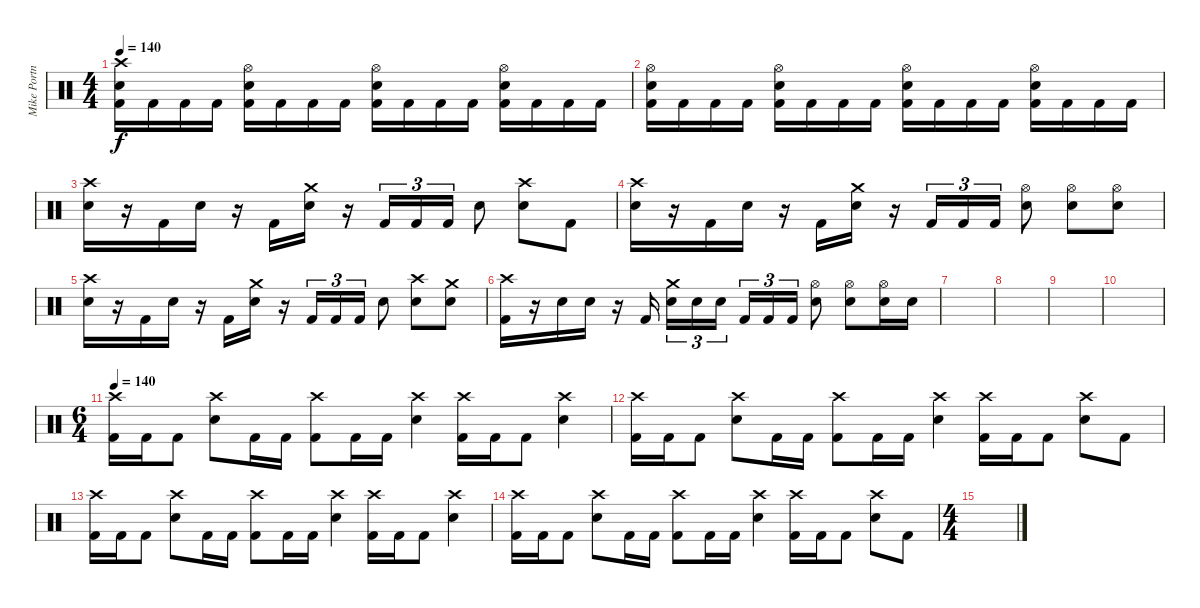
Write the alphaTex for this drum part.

\track ("Mike Portnoy" "Mike Portn") {instrument percussion}
\staff {score}
\articulation defaults
\ts (4 4)
\tempo 140
\clef neutral
\ks c
("Crash high (hit)" "Snare (hit) 2" "Kick (hit) 2").16{dy f} "Kick (hit) 2".16 "Kick (hit) 2".16 "Kick (hit) 2".16 ("Hi-Hat (open)" "Snare (hit) 2" "Kick (hit) 2").16 "Kick (hit) 2".16 "Kick (hit) 2".16 "Kick (hit) 2".16 ("Hi-Hat (open)" "Snare (hit) 2" "Kick (hit) 2").16 "Kick (hit) 2".16 "Kick (hit) 2".16 "Kick (hit) 2".16 ("Hi-Hat (open)" "Snare (hit) 2" "Kick (hit) 2").16 "Kick (hit) 2".16 "Kick (hit) 2".16 "Kick (hit) 2".16 |
("Hi-Hat (open)" "Snare (hit) 2" "Kick (hit) 2").16 "Kick (hit) 2".16 "Kick (hit) 2".16 "Kick (hit) 2".16 ("Hi-Hat (open)" "Snare (hit) 2" "Kick (hit) 2").16 "Kick (hit) 2".16 "Kick (hit) 2".16 "Kick (hit) 2".16 ("Hi-Hat (open)" "Snare (hit) 2" "Kick (hit) 2").16 "Kick (hit) 2".16 "Kick (hit) 2".16 "Kick (hit) 2".16 ("Hi-Hat (open)" "Snare (hit) 2" "Kick (hit) 2").16 "Kick (hit) 2".16 "Kick (hit) 2".16 "Kick (hit) 2".16 |
("Crash high (hit)" "Snare (hit) 2").16 r.16 "Kick (hit) 2".16 "Snare (hit) 2".16 r.16 "Kick (hit) 2".16 ("Crash medium (hit)" "Snare (hit) 2").16 r.16 "Kick (hit) 2".16{tu (3 2)} "Kick (hit) 2".16{tu (3 2)} "Kick (hit) 2".16{tu (3 2)} "Snare (hit) 2".8 ("Crash high (hit)" "Snare (hit) 2").8 "Kick (hit) 2".8 |
("Crash high (hit)" "Snare (hit) 2").16 r.16 "Kick (hit) 2".16 "Snare (hit) 2".16 r.16 "Kick (hit) 2".16 ("Crash medium (hit)" "Snare (hit) 2").16 r.16 "Kick (hit) 2".16{tu (3 2)} "Kick (hit) 2".16{tu (3 2)} "Kick (hit) 2".16{tu (3 2)} ("Hi-Hat (open)" "Snare (hit) 2").8 ("Hi-Hat (open)" "Snare (hit) 2").8 ("Hi-Hat (open)" "Snare (hit) 2").8 |
("Crash high (hit)" "Snare (hit) 2").16 r.16 "Kick (hit) 2".16 "Snare (hit) 2".16 r.16 "Kick (hit) 2".16 ("Crash medium (hit)" "Snare (hit) 2").16 r.16 "Kick (hit) 2".16{tu (3 2)} "Kick (hit) 2".16{tu (3 2)} "Kick (hit) 2".16{tu (3 2)} "Snare (hit) 2".8 ("Crash high (hit)" "Snare (hit) 2").8 ("Crash medium (hit)" "Snare (hit) 2").8 |
("Crash high (hit)" "Kick (hit) 2").16 r.16 "Snare (hit) 2".16 "Snare (hit) 2".16 r.16 "Kick (hit) 2".16 ("Crash medium (hit)" "Snare (hit) 2").16{tu (3 2)} "Snare (hit) 2".16{tu (3 2)} "Snare (hit) 2".16{tu (3 2)} "Kick (hit) 2".16{tu (3 2)} "Kick (hit) 2".16{tu (3 2)} "Kick (hit) 2".16{tu (3 2)} ("Hi-Hat (open)" "Snare (hit) 2").8 ("Hi-Hat (open)" "Snare (hit) 2").8 ("Hi-Hat (open)" "Snare (hit) 2").16 "Snare (hit) 2".16 |
|
|
|
|
\ts (6 4)
\tempo 140
("Crash high (hit)" "Kick (hit) 2").16 "Kick (hit) 2".16 "Kick (hit) 2".8 ("Crash high (hit)" "Snare (hit) 2").8 "Kick (hit) 2".16 "Kick (hit) 2".16 ("Crash high (hit)" "Kick (hit) 2").8 "Kick (hit) 2".16 "Kick (hit) 2".16 ("Crash high (hit)" "Snare (hit) 2").4 ("Crash high (hit)" "Kick (hit) 2").16 "Kick (hit) 2".16 "Kick (hit) 2".8 ("Crash high (hit)" "Snare (hit) 2").4 |
("Crash high (hit)" "Kick (hit) 2").16 "Kick (hit) 2".16 "Kick (hit) 2".8 ("Crash high (hit)" "Snare (hit) 2").8 "Kick (hit) 2".16 "Kick (hit) 2".16 ("Crash high (hit)" "Kick (hit) 2").8 "Kick (hit) 2".16 "Kick (hit) 2".16 ("Crash high (hit)" "Snare (hit) 2").4 ("Crash high (hit)" "Kick (hit) 2").16 "Kick (hit) 2".16 "Kick (hit) 2".8 ("Crash high (hit)" "Snare (hit) 2").8 "Kick (hit) 2".8 |
("Crash high (hit)" "Kick (hit) 2").16 "Kick (hit) 2".16 "Kick (hit) 2".8 ("Crash high (hit)" "Snare (hit) 2").8 "Kick (hit) 2".16 "Kick (hit) 2".16 ("Crash high (hit)" "Kick (hit) 2").8 "Kick (hit) 2".16 "Kick (hit) 2".16 ("Crash high (hit)" "Snare (hit) 2").4 ("Crash high (hit)" "Kick (hit) 2").16 "Kick (hit) 2".16 "Kick (hit) 2".8 ("Crash high (hit)" "Snare (hit) 2").4 |
("Crash high (hit)" "Kick (hit) 2").16 "Kick (hit) 2".16 "Kick (hit) 2".8 ("Crash high (hit)" "Snare (hit) 2").8 "Kick (hit) 2".16 "Kick (hit) 2".16 ("Crash high (hit)" "Kick (hit) 2").8 "Kick (hit) 2".16 "Kick (hit) 2".16 ("Crash high (hit)" "Snare (hit) 2").4 ("Crash high (hit)" "Kick (hit) 2").16 "Kick (hit) 2".16 "Kick (hit) 2".8 ("Crash high (hit)" "Snare (hit) 2").8 "Kick (hit) 2".8 |
\ts (4 4)
